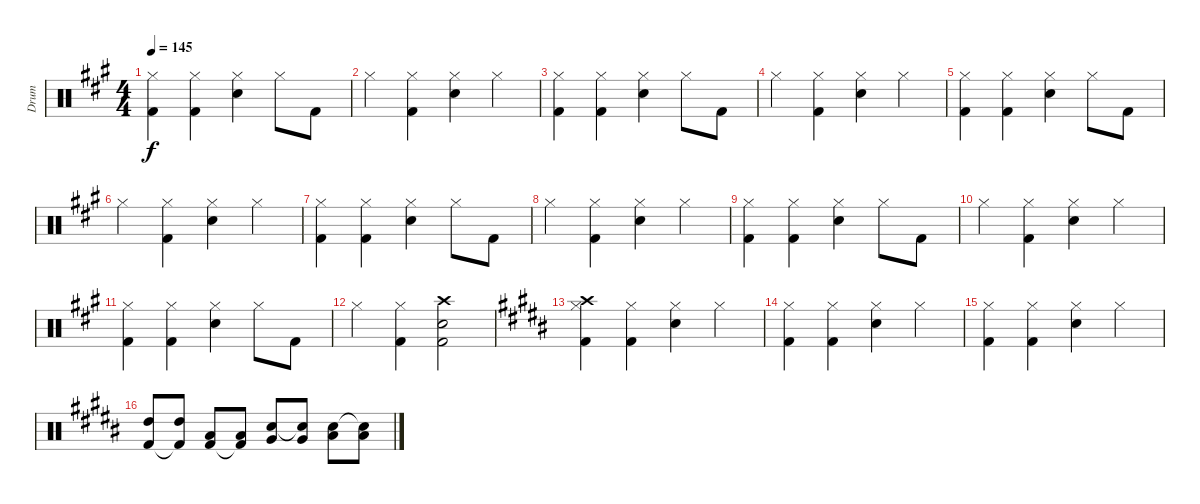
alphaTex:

\track ("Drum" "Drum") {instrument percussion}
\staff {score}
\articulation defaults
\ts (4 4)
\tempo 145
\clef neutral
\ks a
("Hi-Hat (closed)" "Kick (hit) 2").4{dy f} ("Hi-Hat (closed)" "Kick (hit) 2").4 ("Hi-Hat (closed)" "Electric Snare (hit)").4 "Hi-Hat (closed)".8 "Kick (hit) 2".8 |
"Hi-Hat (closed)".4 ("Hi-Hat (closed)" "Kick (hit) 2").4 ("Hi-Hat (closed)" "Electric Snare (hit)").4 "Hi-Hat (closed)".4 |
("Hi-Hat (closed)" "Kick (hit) 2").4 ("Hi-Hat (closed)" "Kick (hit) 2").4 ("Hi-Hat (closed)" "Electric Snare (hit)").4 "Hi-Hat (closed)".8 "Kick (hit) 2".8 |
"Hi-Hat (closed)".4 ("Hi-Hat (closed)" "Kick (hit) 2").4 ("Hi-Hat (closed)" "Electric Snare (hit)").4 "Hi-Hat (closed)".4 |
("Hi-Hat (closed)" "Kick (hit) 2").4 ("Hi-Hat (closed)" "Kick (hit) 2").4 ("Hi-Hat (closed)" "Electric Snare (hit)").4 "Hi-Hat (closed)".8 "Kick (hit) 2".8 |
"Hi-Hat (closed)".4 ("Hi-Hat (closed)" "Kick (hit) 2").4 ("Hi-Hat (closed)" "Electric Snare (hit)").4 "Hi-Hat (closed)".4 |
("Hi-Hat (closed)" "Kick (hit) 2").4 ("Hi-Hat (closed)" "Kick (hit) 2").4 ("Hi-Hat (closed)" "Electric Snare (hit)").4 "Hi-Hat (closed)".8 "Kick (hit) 2".8 |
"Hi-Hat (closed)".4 ("Hi-Hat (closed)" "Kick (hit) 2").4 ("Hi-Hat (closed)" "Electric Snare (hit)").4 "Hi-Hat (closed)".4 |
("Hi-Hat (closed)" "Kick (hit) 2").4 ("Hi-Hat (closed)" "Kick (hit) 2").4 ("Hi-Hat (closed)" "Electric Snare (hit)").4 "Hi-Hat (closed)".8 "Kick (hit) 2".8 |
"Hi-Hat (closed)".4 ("Hi-Hat (closed)" "Kick (hit) 2").4 ("Hi-Hat (closed)" "Electric Snare (hit)").4 "Hi-Hat (closed)".4 |
("Hi-Hat (closed)" "Kick (hit) 2").4 ("Hi-Hat (closed)" "Kick (hit) 2").4 ("Hi-Hat (closed)" "Electric Snare (hit)").4 "Hi-Hat (closed)".8 "Kick (hit) 2".8 |
"Hi-Hat (closed)".4 ("Hi-Hat (closed)" "Kick (hit) 2").4 ("Electric Snare (hit)" "Kick (hit) 2" "Crash high (hit)").2 |
\ks b
("Hi-Hat (closed)" "Kick (hit) 2" "Crash high (hit)").4 ("Hi-Hat (closed)" "Kick (hit) 2").4 ("Hi-Hat (closed)" "Electric Snare (hit)").4 "Hi-Hat (closed)".4 |
("Hi-Hat (closed)" "Kick (hit) 2").4 ("Hi-Hat (closed)" "Kick (hit) 2").4 ("Hi-Hat (closed)" "Electric Snare (hit)").4 "Hi-Hat (closed)".4 |
("Hi-Hat (closed)" "Kick (hit) 2").4 ("Hi-Hat (closed)" "Kick (hit) 2").4 ("Hi-Hat (closed)" "Electric Snare (hit)").4 "Hi-Hat (closed)".4 |
("High Tom (hit)" "Kick (hit) 2").8 ("High Tom (hit)" "Kick (hit) 2"{t}).8 ("Low Tom (hit)" "Kick (hit) 2").8 ("Low Tom (hit)" "Kick (hit) 2"{t}).8 ("Very Low Tom (hit)" "Electric Snare (hit)").8 ("Very Low Tom (hit)" "Electric Snare (hit)"{t}).8 ("Low Floor Tom (hit)" "Electric Snare (hit)").8 ("Low Floor Tom (hit)" "Electric Snare (hit)"{t}).8
